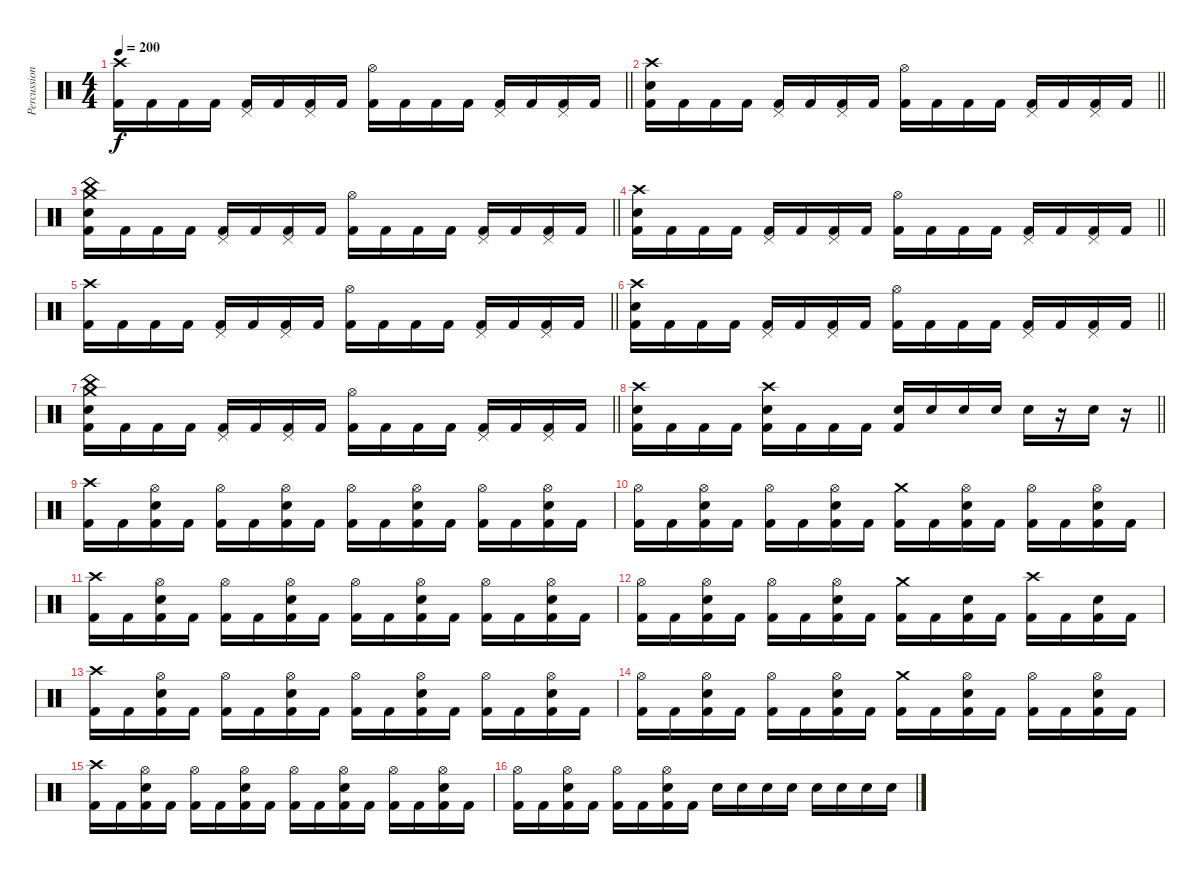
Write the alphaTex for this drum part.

\track ("Percussion" "Percussion") {instrument percussion}
\staff {score}
\articulation defaults
\ts (4 4)
\tempo 200
\clef neutral
\barLineRight lightlight
\ks c
("Crash high (hit)" "Kick (hit) 2").16{dy f} "Kick (hit) 2".16 "Kick (hit) 2".16 "Kick (hit) 2".16 ("Pedal Hi-Hat (hit)" "Kick (hit) 2").16 "Kick (hit) 2".16 ("Pedal Hi-Hat (hit)" "Kick (hit) 2").16 "Kick (hit) 2".16 ("Hi-Hat (open)" "Kick (hit) 2").16 "Kick (hit) 2".16 "Kick (hit) 2".16 "Kick (hit) 2".16 ("Pedal Hi-Hat (hit)" "Kick (hit) 2").16 "Kick (hit) 2".16 ("Pedal Hi-Hat (hit)" "Kick (hit) 2").16 "Kick (hit) 2".16 |
\barLineRight lightlight
("Crash high (hit)" "Snare (hit) 2" "Kick (hit) 2").16 "Kick (hit) 2".16 "Kick (hit) 2".16 "Kick (hit) 2".16 ("Pedal Hi-Hat (hit)" "Kick (hit) 2").16 "Kick (hit) 2".16 ("Pedal Hi-Hat (hit)" "Kick (hit) 2").16 "Kick (hit) 2".16 ("Hi-Hat (open)" "Kick (hit) 2").16 "Kick (hit) 2".16 "Kick (hit) 2".16 "Kick (hit) 2".16 ("Pedal Hi-Hat (hit)" "Kick (hit) 2").16 "Kick (hit) 2".16 ("Pedal Hi-Hat (hit)" "Kick (hit) 2").16 "Kick (hit) 2".16 |
\barLineRight lightlight
("China (hit)" "Crash medium (hit)" "Snare (hit) 2" "Kick (hit) 2").16 "Kick (hit) 2".16 "Kick (hit) 2".16 "Kick (hit) 2".16 ("Pedal Hi-Hat (hit)" "Kick (hit) 2").16 "Kick (hit) 2".16 ("Pedal Hi-Hat (hit)" "Kick (hit) 2").16 "Kick (hit) 2".16 ("Hi-Hat (open)" "Kick (hit) 2").16 "Kick (hit) 2".16 "Kick (hit) 2".16 "Kick (hit) 2".16 ("Pedal Hi-Hat (hit)" "Kick (hit) 2").16 "Kick (hit) 2".16 ("Pedal Hi-Hat (hit)" "Kick (hit) 2").16 "Kick (hit) 2".16 |
\barLineRight lightlight
("Crash high (hit)" "Snare (hit) 2" "Kick (hit) 2").16 "Kick (hit) 2".16 "Kick (hit) 2".16 "Kick (hit) 2".16 ("Pedal Hi-Hat (hit)" "Kick (hit) 2").16 "Kick (hit) 2".16 ("Pedal Hi-Hat (hit)" "Kick (hit) 2").16 "Kick (hit) 2".16 ("Hi-Hat (open)" "Kick (hit) 2").16 "Kick (hit) 2".16 "Kick (hit) 2".16 "Kick (hit) 2".16 ("Pedal Hi-Hat (hit)" "Kick (hit) 2").16 "Kick (hit) 2".16 ("Pedal Hi-Hat (hit)" "Kick (hit) 2").16 "Kick (hit) 2".16 |
\barLineRight lightlight
("Crash high (hit)" "Kick (hit) 2").16 "Kick (hit) 2".16 "Kick (hit) 2".16 "Kick (hit) 2".16 ("Pedal Hi-Hat (hit)" "Kick (hit) 2").16 "Kick (hit) 2".16 ("Pedal Hi-Hat (hit)" "Kick (hit) 2").16 "Kick (hit) 2".16 ("Hi-Hat (open)" "Kick (hit) 2").16 "Kick (hit) 2".16 "Kick (hit) 2".16 "Kick (hit) 2".16 ("Pedal Hi-Hat (hit)" "Kick (hit) 2").16 "Kick (hit) 2".16 ("Pedal Hi-Hat (hit)" "Kick (hit) 2").16 "Kick (hit) 2".16 |
\barLineRight lightlight
("Crash high (hit)" "Snare (hit) 2" "Kick (hit) 2").16 "Kick (hit) 2".16 "Kick (hit) 2".16 "Kick (hit) 2".16 ("Pedal Hi-Hat (hit)" "Kick (hit) 2").16 "Kick (hit) 2".16 ("Pedal Hi-Hat (hit)" "Kick (hit) 2").16 "Kick (hit) 2".16 ("Hi-Hat (open)" "Kick (hit) 2").16 "Kick (hit) 2".16 "Kick (hit) 2".16 "Kick (hit) 2".16 ("Pedal Hi-Hat (hit)" "Kick (hit) 2").16 "Kick (hit) 2".16 ("Pedal Hi-Hat (hit)" "Kick (hit) 2").16 "Kick (hit) 2".16 |
\barLineRight lightlight
("China (hit)" "Crash medium (hit)" "Snare (hit) 2" "Kick (hit) 2").16 "Kick (hit) 2".16 "Kick (hit) 2".16 "Kick (hit) 2".16 ("Pedal Hi-Hat (hit)" "Kick (hit) 2").16 "Kick (hit) 2".16 ("Pedal Hi-Hat (hit)" "Kick (hit) 2").16 "Kick (hit) 2".16 ("Hi-Hat (open)" "Kick (hit) 2").16 "Kick (hit) 2".16 "Kick (hit) 2".16 "Kick (hit) 2".16 ("Pedal Hi-Hat (hit)" "Kick (hit) 2").16 "Kick (hit) 2".16 ("Pedal Hi-Hat (hit)" "Kick (hit) 2").16 "Kick (hit) 2".16 |
\barLineRight lightlight
("Crash high (hit)" "Snare (hit) 2" "Kick (hit) 2").16 "Kick (hit) 2".16 "Kick (hit) 2".16 "Kick (hit) 2".16 ("Crash high (hit)" "Snare (hit) 2" "Kick (hit) 2").16 "Kick (hit) 2".16 "Kick (hit) 2".16 "Kick (hit) 2".16 ("Snare (hit) 2" "Kick (hit) 2").16 "Snare (hit) 2".16 "Snare (hit) 2".16 "Snare (hit) 2".16 "Snare (hit) 2".16 r.16 "Snare (hit) 2".16 r.16 |
\section ("" "")
("Crash high (hit)" "Kick (hit) 2").16 "Kick (hit) 2".16 ("Hi-Hat (open)" "Snare (hit) 2" "Kick (hit) 2").16 "Kick (hit) 2".16 ("Hi-Hat (open)" "Kick (hit) 2").16 "Kick (hit) 2".16 ("Hi-Hat (open)" "Snare (hit) 2" "Kick (hit) 2").16 "Kick (hit) 2".16 ("Hi-Hat (open)" "Kick (hit) 2").16 "Kick (hit) 2".16 ("Hi-Hat (open)" "Snare (hit) 2" "Kick (hit) 2").16 "Kick (hit) 2".16 ("Hi-Hat (open)" "Kick (hit) 2").16 "Kick (hit) 2".16 ("Hi-Hat (open)" "Snare (hit) 2" "Kick (hit) 2").16 "Kick (hit) 2".16 |
("Hi-Hat (open)" "Kick (hit) 2").16 "Kick (hit) 2".16 ("Hi-Hat (open)" "Snare (hit) 2" "Kick (hit) 2").16 "Kick (hit) 2".16 ("Hi-Hat (open)" "Kick (hit) 2").16 "Kick (hit) 2".16 ("Hi-Hat (open)" "Snare (hit) 2" "Kick (hit) 2").16 "Kick (hit) 2".16 ("Crash medium (hit)" "Kick (hit) 2").16 "Kick (hit) 2".16 ("Hi-Hat (open)" "Snare (hit) 2" "Kick (hit) 2").16 "Kick (hit) 2".16 ("Hi-Hat (open)" "Kick (hit) 2").16 "Kick (hit) 2".16 ("Hi-Hat (open)" "Snare (hit) 2" "Kick (hit) 2").16 "Kick (hit) 2".16 |
("Crash high (hit)" "Kick (hit) 2").16 "Kick (hit) 2".16 ("Hi-Hat (open)" "Snare (hit) 2" "Kick (hit) 2").16 "Kick (hit) 2".16 ("Hi-Hat (open)" "Kick (hit) 2").16 "Kick (hit) 2".16 ("Hi-Hat (open)" "Snare (hit) 2" "Kick (hit) 2").16 "Kick (hit) 2".16 ("Hi-Hat (open)" "Kick (hit) 2").16 "Kick (hit) 2".16 ("Hi-Hat (open)" "Snare (hit) 2" "Kick (hit) 2").16 "Kick (hit) 2".16 ("Hi-Hat (open)" "Kick (hit) 2").16 "Kick (hit) 2".16 ("Hi-Hat (open)" "Snare (hit) 2" "Kick (hit) 2").16 "Kick (hit) 2".16 |
("Hi-Hat (open)" "Kick (hit) 2").16 "Kick (hit) 2".16 ("Hi-Hat (open)" "Snare (hit) 2" "Kick (hit) 2").16 "Kick (hit) 2".16 ("Hi-Hat (open)" "Kick (hit) 2").16 "Kick (hit) 2".16 ("Hi-Hat (open)" "Snare (hit) 2" "Kick (hit) 2").16 "Kick (hit) 2".16 ("Crash medium (hit)" "Kick (hit) 2").16 "Kick (hit) 2".16 ("Snare (hit) 2" "Kick (hit) 2").16 "Kick (hit) 2".16 ("Crash high (hit)" "Kick (hit) 2").16 "Kick (hit) 2".16 ("Snare (hit) 2" "Kick (hit) 2").16 "Kick (hit) 2".16 |
("Crash high (hit)" "Kick (hit) 2").16 "Kick (hit) 2".16 ("Hi-Hat (open)" "Snare (hit) 2" "Kick (hit) 2").16 "Kick (hit) 2".16 ("Hi-Hat (open)" "Kick (hit) 2").16 "Kick (hit) 2".16 ("Hi-Hat (open)" "Snare (hit) 2" "Kick (hit) 2").16 "Kick (hit) 2".16 ("Hi-Hat (open)" "Kick (hit) 2").16 "Kick (hit) 2".16 ("Hi-Hat (open)" "Snare (hit) 2" "Kick (hit) 2").16 "Kick (hit) 2".16 ("Hi-Hat (open)" "Kick (hit) 2").16 "Kick (hit) 2".16 ("Hi-Hat (open)" "Snare (hit) 2" "Kick (hit) 2").16 "Kick (hit) 2".16 |
("Hi-Hat (open)" "Kick (hit) 2").16 "Kick (hit) 2".16 ("Hi-Hat (open)" "Snare (hit) 2" "Kick (hit) 2").16 "Kick (hit) 2".16 ("Hi-Hat (open)" "Kick (hit) 2").16 "Kick (hit) 2".16 ("Hi-Hat (open)" "Snare (hit) 2" "Kick (hit) 2").16 "Kick (hit) 2".16 ("Crash medium (hit)" "Kick (hit) 2").16 "Kick (hit) 2".16 ("Hi-Hat (open)" "Snare (hit) 2" "Kick (hit) 2").16 "Kick (hit) 2".16 ("Hi-Hat (open)" "Kick (hit) 2").16 "Kick (hit) 2".16 ("Hi-Hat (open)" "Snare (hit) 2" "Kick (hit) 2").16 "Kick (hit) 2".16 |
("Crash high (hit)" "Kick (hit) 2").16 "Kick (hit) 2".16 ("Hi-Hat (open)" "Snare (hit) 2" "Kick (hit) 2").16 "Kick (hit) 2".16 ("Hi-Hat (open)" "Kick (hit) 2").16 "Kick (hit) 2".16 ("Hi-Hat (open)" "Snare (hit) 2" "Kick (hit) 2").16 "Kick (hit) 2".16 ("Hi-Hat (open)" "Kick (hit) 2").16 "Kick (hit) 2".16 ("Hi-Hat (open)" "Snare (hit) 2" "Kick (hit) 2").16 "Kick (hit) 2".16 ("Hi-Hat (open)" "Kick (hit) 2").16 "Kick (hit) 2".16 ("Hi-Hat (open)" "Snare (hit) 2" "Kick (hit) 2").16 "Kick (hit) 2".16 |
("Hi-Hat (open)" "Kick (hit) 2").16 "Kick (hit) 2".16 ("Hi-Hat (open)" "Snare (hit) 2" "Kick (hit) 2").16 "Kick (hit) 2".16 ("Hi-Hat (open)" "Kick (hit) 2").16 "Kick (hit) 2".16 ("Hi-Hat (open)" "Snare (hit) 2" "Kick (hit) 2").16 "Kick (hit) 2".16 "Snare (hit) 2".16 "Snare (hit) 2".16 "Snare (hit) 2".16 "Snare (hit) 2".16 "Snare (hit) 2".16 "Snare (hit) 2".16 "Snare (hit) 2".16 "Snare (hit) 2".16
